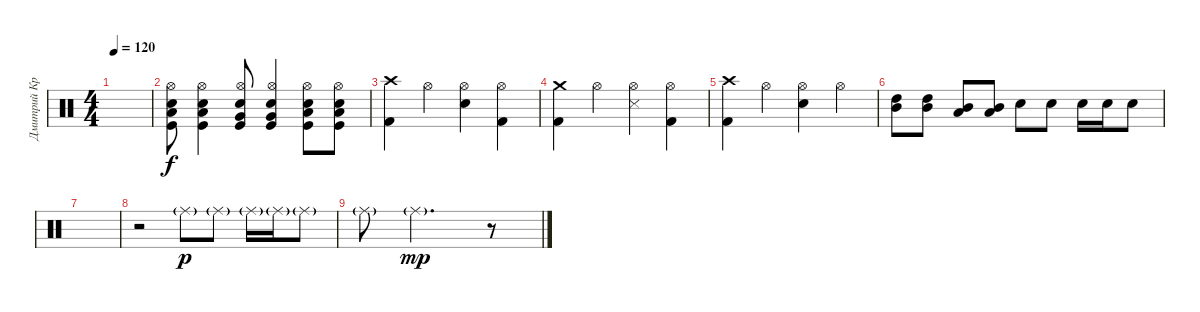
\track ("Дмитрий Кривенков       (Ударные)" "Дмитрий Кр") {instrument percussion}
\staff {score}
\articulation defaults
\ts (4 4)
\tempo 120
\clef neutral
\ks c
|
("Kick (hit)" "Electric Snare (hit)" "Low Tom (hit)" "Hi-Hat (open)").8 ("Kick (hit)" "Electric Snare (hit)" "Low Tom (hit)" "Hi-Hat (open)").4 ("Hi-Hat (open)" "Electric Snare (hit)" "Very Low Tom (hit)" "Kick (hit)").8 ("Hi-Hat (open)" "Electric Snare (hit)" "Very Low Tom (hit)" "Kick (hit)").4 ("Hi-Hat (open)" "Electric Snare (hit)" "Low Tom (hit)" "Kick (hit)").8 ("Hi-Hat (open)" "Electric Snare (hit)" "Low Tom (hit)" "Kick (hit)").8 |
("Crash high (hit)" "Kick (hit) 2").4 "Hi-Hat (open)".4 ("Hi-Hat (open)" "Electric Snare (hit)").4 ("Hi-Hat (open)" "Kick (hit) 2").4 |
("Crash medium (hit)" "Kick (hit) 2").4 "Hi-Hat (open)".4 ("Snare (side stick) 3" "Hi-Hat (open)").4 ("Hi-Hat (open)" "Kick (hit) 2").4 |
("Crash high (hit)" "Kick (hit) 2").4 "Hi-Hat (open)".4 ("Hi-Hat (open)" "Electric Snare (hit)").4 "Hi-Hat (open)".4 |
("High Tom (hit)" "Mid Tom (hit)").8 ("High Tom (hit)" "Mid Tom (hit)").8 ("Mid Tom (hit)" "Low Tom (hit)").8 ("Mid Tom (hit)" "Low Tom (hit)").8 "Electric Snare (hit)".8 "Electric Snare (hit)".8 "Electric Snare (hit)".16 "Electric Snare (hit)".16 "Electric Snare (hit)".8 |
|
r.2 "Ride (middle)"{g}.8{dy p} "Ride (middle)"{g}.8 "Ride (middle)"{g}.16 "Ride (middle)"{g}.16 "Ride (middle)"{g}.8 |
"Ride (middle)"{g}.8 "Ride (middle)"{g}.2{d dy mp} r.8
